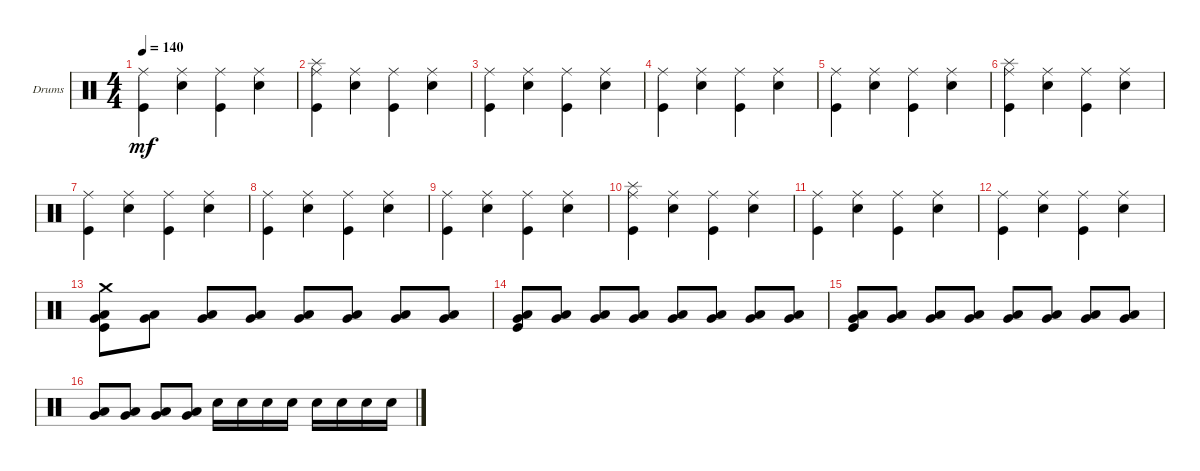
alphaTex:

\defaultSystemsLayout 4
\bracketExtendMode groupsimilarinstruments
\firstSystemTrackNameOrientation horizontal
\otherSystemsTrackNameOrientation horizontal
\track ("Drumkit" "Drums") {instrument percussion}
\staff {score}
\articulation defaults
\ts (4 4)
\tempo 140
\clef neutral
\ks c
("Kick (hit)" "Ride (middle)").4{dy mf} ("Snare (hit) 2" "Ride (middle)").4 ("Kick (hit)" "Ride (middle)").4 ("Snare (hit) 2" "Ride (middle)").4 |
("Splash (hit)" "Kick (hit)" "Ride (middle)").4 ("Snare (hit) 2" "Ride (middle)").4 ("Kick (hit)" "Ride (middle)").4 ("Snare (hit) 2" "Ride (middle)").4 |
("Kick (hit)" "Ride (middle)").4 ("Snare (hit) 2" "Ride (middle)").4 ("Kick (hit)" "Ride (middle)").4 ("Snare (hit) 2" "Ride (middle)").4 |
("Kick (hit)" "Ride (middle)").4 ("Snare (hit) 2" "Ride (middle)").4 ("Kick (hit)" "Ride (middle)").4 ("Snare (hit) 2" "Ride (middle)").4 |
("Kick (hit)" "Ride (middle)").4 ("Snare (hit) 2" "Ride (middle)").4 ("Kick (hit)" "Ride (middle)").4 ("Snare (hit) 2" "Ride (middle)").4 |
("Splash (hit)" "Kick (hit)" "Ride (middle)").4 ("Snare (hit) 2" "Ride (middle)").4 ("Kick (hit)" "Ride (middle)").4 ("Snare (hit) 2" "Ride (middle)").4 |
("Kick (hit)" "Ride (middle)").4 ("Snare (hit) 2" "Ride (middle)").4 ("Kick (hit)" "Ride (middle)").4 ("Snare (hit) 2" "Ride (middle)").4 |
("Kick (hit)" "Ride (middle)").4 ("Snare (hit) 2" "Ride (middle)").4 ("Kick (hit)" "Ride (middle)").4 ("Snare (hit) 2" "Ride (middle)").4 |
("Kick (hit)" "Ride (middle)").4 ("Snare (hit) 2" "Ride (middle)").4 ("Kick (hit)" "Ride (middle)").4 ("Snare (hit) 2" "Ride (middle)").4 |
("Splash (hit)" "Kick (hit)" "Ride (middle)").4 ("Snare (hit) 2" "Ride (middle)").4 ("Kick (hit)" "Ride (middle)").4 ("Snare (hit) 2" "Ride (middle)").4 |
("Kick (hit)" "Ride (middle)").4 ("Snare (hit) 2" "Ride (middle)").4 ("Kick (hit)" "Ride (middle)").4 ("Snare (hit) 2" "Ride (middle)").4 |
("Kick (hit)" "Ride (middle)").4 ("Snare (hit) 2" "Ride (middle)").4 ("Kick (hit)" "Ride (middle)").4 ("Snare (hit) 2" "Ride (middle)").4 |
("Kick (hit)" "Very Low Tom (hit)" "Low Tom (hit)" "Crash medium (hit)").8 ("Very Low Tom (hit)" "Low Tom (hit)").8 ("Very Low Tom (hit)" "Low Tom (hit)").8 ("Very Low Tom (hit)" "Low Tom (hit)").8 ("Very Low Tom (hit)" "Low Tom (hit)").8 ("Very Low Tom (hit)" "Low Tom (hit)").8 ("Low Tom (hit)" "Very Low Tom (hit)").8 ("Low Tom (hit)" "Very Low Tom (hit)").8 |
("Kick (hit)" "Very Low Tom (hit)" "Low Tom (hit)").8 ("Very Low Tom (hit)" "Low Tom (hit)").8 ("Very Low Tom (hit)" "Low Tom (hit)").8 ("Very Low Tom (hit)" "Low Tom (hit)").8 ("Very Low Tom (hit)" "Low Tom (hit)").8 ("Very Low Tom (hit)" "Low Tom (hit)").8 ("Low Tom (hit)" "Very Low Tom (hit)").8 ("Low Tom (hit)" "Very Low Tom (hit)").8 |
("Kick (hit)" "Very Low Tom (hit)" "Low Tom (hit)").8 ("Very Low Tom (hit)" "Low Tom (hit)").8 ("Very Low Tom (hit)" "Low Tom (hit)").8 ("Very Low Tom (hit)" "Low Tom (hit)").8 ("Very Low Tom (hit)" "Low Tom (hit)").8 ("Very Low Tom (hit)" "Low Tom (hit)").8 ("Low Tom (hit)" "Very Low Tom (hit)").8 ("Low Tom (hit)" "Very Low Tom (hit)").8 |
("Very Low Tom (hit)" "Low Tom (hit)").8 ("Very Low Tom (hit)" "Low Tom (hit)").8 ("Very Low Tom (hit)" "Low Tom (hit)").8 ("Very Low Tom (hit)" "Low Tom (hit)").8 "Snare (hit) 2".16 "Snare (hit) 2".16 "Snare (hit) 2".16 "Snare (hit) 2".16 "Snare (hit) 2".16 "Snare (hit) 2".16 "Snare (hit) 2".16 "Snare (hit) 2".16
